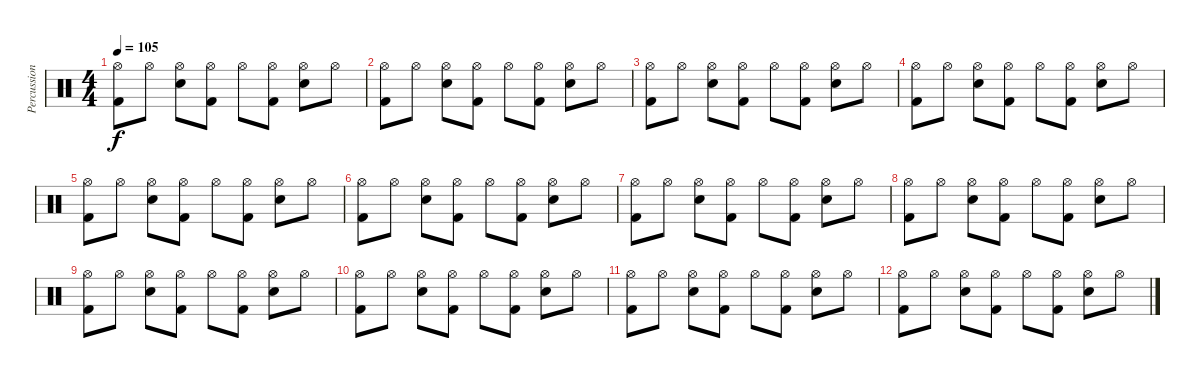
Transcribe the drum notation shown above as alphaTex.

\track ("Percussion" "Percussion") {instrument percussion}
\staff {score}
\articulation defaults
\ts (4 4)
\tempo 105
\clef neutral
\ks c
("Hi-Hat (open)" "Kick (hit) 2").8{dy f} "Hi-Hat (open)".8 ("Hi-Hat (open)" "Snare (hit) 2").8 ("Hi-Hat (open)" "Kick (hit) 2").8 "Hi-Hat (open)".8 ("Hi-Hat (open)" "Kick (hit) 2").8 ("Hi-Hat (open)" "Snare (hit) 2").8 "Hi-Hat (open)".8 |
("Hi-Hat (open)" "Kick (hit) 2").8 "Hi-Hat (open)".8 ("Hi-Hat (open)" "Snare (hit) 2").8 ("Hi-Hat (open)" "Kick (hit) 2").8 "Hi-Hat (open)".8 ("Hi-Hat (open)" "Kick (hit) 2").8 ("Hi-Hat (open)" "Snare (hit) 2").8 "Hi-Hat (open)".8 |
("Hi-Hat (open)" "Kick (hit) 2").8 "Hi-Hat (open)".8 ("Hi-Hat (open)" "Snare (hit) 2").8 ("Hi-Hat (open)" "Kick (hit) 2").8 "Hi-Hat (open)".8 ("Hi-Hat (open)" "Kick (hit) 2").8 ("Hi-Hat (open)" "Snare (hit) 2").8 "Hi-Hat (open)".8 |
("Hi-Hat (open)" "Kick (hit) 2").8 "Hi-Hat (open)".8 ("Hi-Hat (open)" "Snare (hit) 2").8 ("Hi-Hat (open)" "Kick (hit) 2").8 "Hi-Hat (open)".8 ("Hi-Hat (open)" "Kick (hit) 2").8 ("Hi-Hat (open)" "Snare (hit) 2").8 "Hi-Hat (open)".8 |
("Hi-Hat (open)" "Kick (hit) 2").8 "Hi-Hat (open)".8 ("Hi-Hat (open)" "Snare (hit) 2").8 ("Hi-Hat (open)" "Kick (hit) 2").8 "Hi-Hat (open)".8 ("Hi-Hat (open)" "Kick (hit) 2").8 ("Hi-Hat (open)" "Snare (hit) 2").8 "Hi-Hat (open)".8 |
("Hi-Hat (open)" "Kick (hit) 2").8 "Hi-Hat (open)".8 ("Hi-Hat (open)" "Snare (hit) 2").8 ("Hi-Hat (open)" "Kick (hit) 2").8 "Hi-Hat (open)".8 ("Hi-Hat (open)" "Kick (hit) 2").8 ("Hi-Hat (open)" "Snare (hit) 2").8 "Hi-Hat (open)".8 |
("Hi-Hat (open)" "Kick (hit) 2").8 "Hi-Hat (open)".8 ("Hi-Hat (open)" "Snare (hit) 2").8 ("Hi-Hat (open)" "Kick (hit) 2").8 "Hi-Hat (open)".8 ("Hi-Hat (open)" "Kick (hit) 2").8 ("Hi-Hat (open)" "Snare (hit) 2").8 "Hi-Hat (open)".8 |
("Hi-Hat (open)" "Kick (hit) 2").8 "Hi-Hat (open)".8 ("Hi-Hat (open)" "Snare (hit) 2").8 ("Hi-Hat (open)" "Kick (hit) 2").8 "Hi-Hat (open)".8 ("Hi-Hat (open)" "Kick (hit) 2").8 ("Hi-Hat (open)" "Snare (hit) 2").8 "Hi-Hat (open)".8 |
("Hi-Hat (open)" "Kick (hit) 2").8 "Hi-Hat (open)".8 ("Hi-Hat (open)" "Snare (hit) 2").8 ("Hi-Hat (open)" "Kick (hit) 2").8 "Hi-Hat (open)".8 ("Hi-Hat (open)" "Kick (hit) 2").8 ("Hi-Hat (open)" "Snare (hit) 2").8 "Hi-Hat (open)".8 |
("Hi-Hat (open)" "Kick (hit) 2").8 "Hi-Hat (open)".8 ("Hi-Hat (open)" "Snare (hit) 2").8 ("Hi-Hat (open)" "Kick (hit) 2").8 "Hi-Hat (open)".8 ("Hi-Hat (open)" "Kick (hit) 2").8 ("Hi-Hat (open)" "Snare (hit) 2").8 "Hi-Hat (open)".8 |
("Hi-Hat (open)" "Kick (hit) 2").8 "Hi-Hat (open)".8 ("Hi-Hat (open)" "Snare (hit) 2").8 ("Hi-Hat (open)" "Kick (hit) 2").8 "Hi-Hat (open)".8 ("Hi-Hat (open)" "Kick (hit) 2").8 ("Hi-Hat (open)" "Snare (hit) 2").8 "Hi-Hat (open)".8 |
("Hi-Hat (open)" "Kick (hit) 2").8 "Hi-Hat (open)".8 ("Hi-Hat (open)" "Snare (hit) 2").8 ("Hi-Hat (open)" "Kick (hit) 2").8 "Hi-Hat (open)".8 ("Hi-Hat (open)" "Kick (hit) 2").8 ("Hi-Hat (open)" "Snare (hit) 2").8 "Hi-Hat (open)".8
